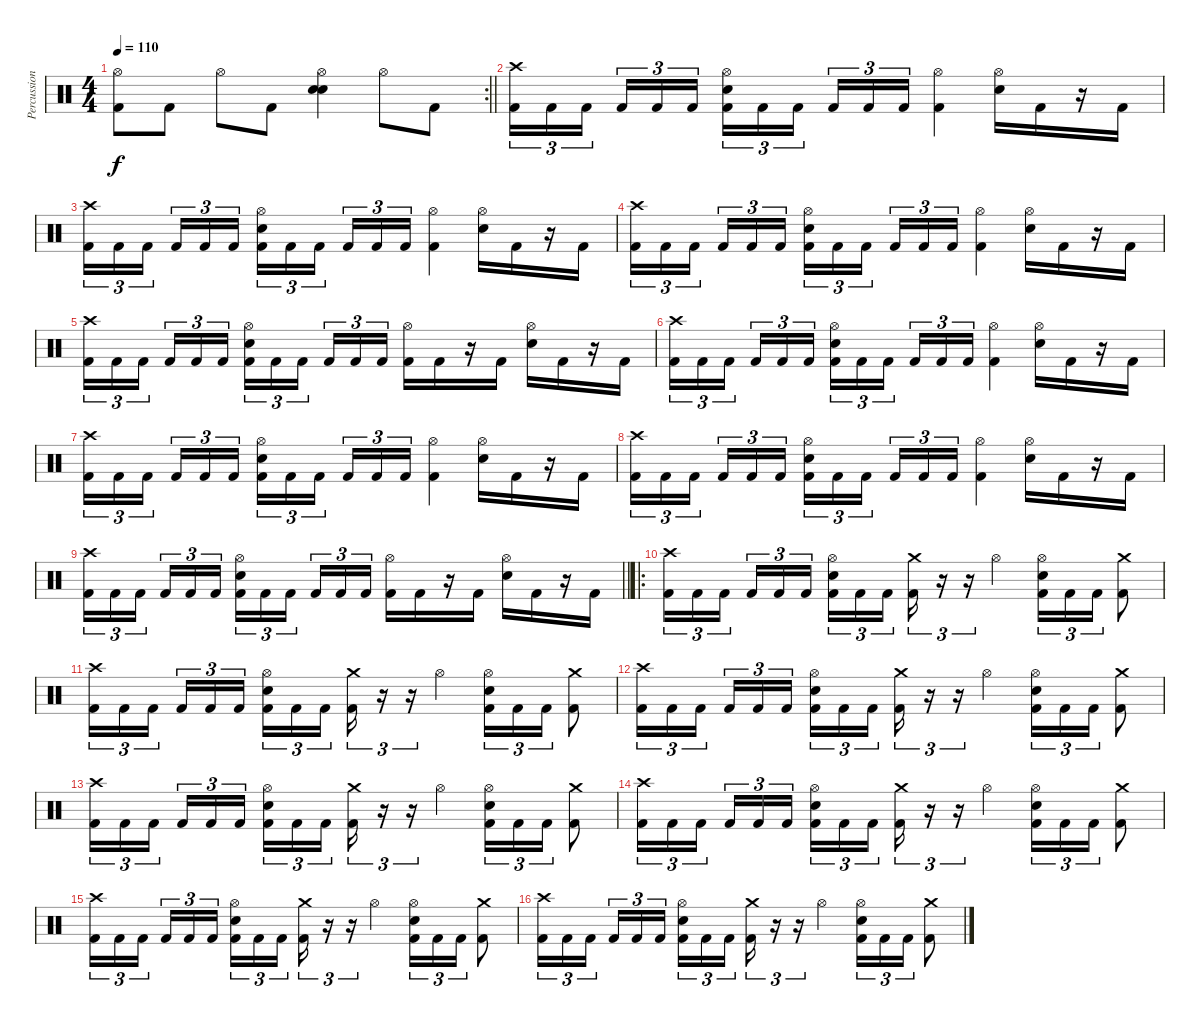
\track ("Percussions" "Percussion") {instrument percussion}
\staff {score}
\articulation defaults
\rc 2
\ts (4 4)
\tempo 110
\clef neutral
\barLineRight lightlight
\ks c
("Hi-Hat (open)" "Kick (hit) 2").8{dy f} "Kick (hit) 2".8 "Hi-Hat (open)".8 "Kick (hit) 2".8 ("Hand Clap (hit)" "Hi-Hat (open)" "Electric Snare (hit)").4 "Hi-Hat (open)".8 "Kick (hit) 2".8 |
\section ("" "")
("Crash high (hit)" "Kick (hit) 2").16{tu (3 2)} "Kick (hit) 2".16{tu (3 2)} "Kick (hit) 2".16{tu (3 2) beam splitsecondary} "Kick (hit) 2".16{tu (3 2)} "Kick (hit) 2".16{tu (3 2)} "Kick (hit) 2".16{tu (3 2)} ("Hi-Hat (open)" "Electric Snare (hit)" "Kick (hit) 2").16{tu (3 2)} "Kick (hit) 2".16{tu (3 2)} "Kick (hit) 2".16{tu (3 2) beam splitsecondary} "Kick (hit) 2".16{tu (3 2)} "Kick (hit) 2".16{tu (3 2)} "Kick (hit) 2".16{tu (3 2)} ("Hi-Hat (open)" "Kick (hit) 2").4 ("Hi-Hat (open)" "Electric Snare (hit)").16 "Kick (hit) 2".16 r.16 "Kick (hit) 2".16 |
("Crash high (hit)" "Kick (hit) 2").16{tu (3 2)} "Kick (hit) 2".16{tu (3 2)} "Kick (hit) 2".16{tu (3 2) beam splitsecondary} "Kick (hit) 2".16{tu (3 2)} "Kick (hit) 2".16{tu (3 2)} "Kick (hit) 2".16{tu (3 2)} ("Hi-Hat (open)" "Electric Snare (hit)" "Kick (hit) 2").16{tu (3 2)} "Kick (hit) 2".16{tu (3 2)} "Kick (hit) 2".16{tu (3 2) beam splitsecondary} "Kick (hit) 2".16{tu (3 2)} "Kick (hit) 2".16{tu (3 2)} "Kick (hit) 2".16{tu (3 2)} ("Hi-Hat (open)" "Kick (hit) 2").4 ("Hi-Hat (open)" "Electric Snare (hit)").16 "Kick (hit) 2".16 r.16 "Kick (hit) 2".16 |
("Crash high (hit)" "Kick (hit) 2").16{tu (3 2)} "Kick (hit) 2".16{tu (3 2)} "Kick (hit) 2".16{tu (3 2) beam splitsecondary} "Kick (hit) 2".16{tu (3 2)} "Kick (hit) 2".16{tu (3 2)} "Kick (hit) 2".16{tu (3 2)} ("Hi-Hat (open)" "Electric Snare (hit)" "Kick (hit) 2").16{tu (3 2)} "Kick (hit) 2".16{tu (3 2)} "Kick (hit) 2".16{tu (3 2) beam splitsecondary} "Kick (hit) 2".16{tu (3 2)} "Kick (hit) 2".16{tu (3 2)} "Kick (hit) 2".16{tu (3 2)} ("Hi-Hat (open)" "Kick (hit) 2").4 ("Hi-Hat (open)" "Electric Snare (hit)").16 "Kick (hit) 2".16 r.16 "Kick (hit) 2".16 |
("Crash high (hit)" "Kick (hit) 2").16{tu (3 2)} "Kick (hit) 2".16{tu (3 2)} "Kick (hit) 2".16{tu (3 2) beam splitsecondary} "Kick (hit) 2".16{tu (3 2)} "Kick (hit) 2".16{tu (3 2)} "Kick (hit) 2".16{tu (3 2)} ("Hi-Hat (open)" "Electric Snare (hit)" "Kick (hit) 2").16{tu (3 2)} "Kick (hit) 2".16{tu (3 2)} "Kick (hit) 2".16{tu (3 2) beam splitsecondary} "Kick (hit) 2".16{tu (3 2)} "Kick (hit) 2".16{tu (3 2)} "Kick (hit) 2".16{tu (3 2)} ("Hi-Hat (open)" "Kick (hit) 2").16 "Kick (hit) 2".16 r.16 "Kick (hit) 2".16 ("Hi-Hat (open)" "Electric Snare (hit)").16 "Kick (hit) 2".16 r.16 "Kick (hit) 2".16 |
("Crash high (hit)" "Kick (hit) 2").16{tu (3 2)} "Kick (hit) 2".16{tu (3 2)} "Kick (hit) 2".16{tu (3 2) beam splitsecondary} "Kick (hit) 2".16{tu (3 2)} "Kick (hit) 2".16{tu (3 2)} "Kick (hit) 2".16{tu (3 2)} ("Hi-Hat (open)" "Electric Snare (hit)" "Kick (hit) 2").16{tu (3 2)} "Kick (hit) 2".16{tu (3 2)} "Kick (hit) 2".16{tu (3 2) beam splitsecondary} "Kick (hit) 2".16{tu (3 2)} "Kick (hit) 2".16{tu (3 2)} "Kick (hit) 2".16{tu (3 2)} ("Hi-Hat (open)" "Kick (hit) 2").4 ("Hi-Hat (open)" "Electric Snare (hit)").16 "Kick (hit) 2".16 r.16 "Kick (hit) 2".16 |
("Crash high (hit)" "Kick (hit) 2").16{tu (3 2)} "Kick (hit) 2".16{tu (3 2)} "Kick (hit) 2".16{tu (3 2) beam splitsecondary} "Kick (hit) 2".16{tu (3 2)} "Kick (hit) 2".16{tu (3 2)} "Kick (hit) 2".16{tu (3 2)} ("Hi-Hat (open)" "Electric Snare (hit)" "Kick (hit) 2").16{tu (3 2)} "Kick (hit) 2".16{tu (3 2)} "Kick (hit) 2".16{tu (3 2) beam splitsecondary} "Kick (hit) 2".16{tu (3 2)} "Kick (hit) 2".16{tu (3 2)} "Kick (hit) 2".16{tu (3 2)} ("Hi-Hat (open)" "Kick (hit) 2").4 ("Hi-Hat (open)" "Electric Snare (hit)").16 "Kick (hit) 2".16 r.16 "Kick (hit) 2".16 |
("Crash high (hit)" "Kick (hit) 2").16{tu (3 2)} "Kick (hit) 2".16{tu (3 2)} "Kick (hit) 2".16{tu (3 2) beam splitsecondary} "Kick (hit) 2".16{tu (3 2)} "Kick (hit) 2".16{tu (3 2)} "Kick (hit) 2".16{tu (3 2)} ("Hi-Hat (open)" "Electric Snare (hit)" "Kick (hit) 2").16{tu (3 2)} "Kick (hit) 2".16{tu (3 2)} "Kick (hit) 2".16{tu (3 2) beam splitsecondary} "Kick (hit) 2".16{tu (3 2)} "Kick (hit) 2".16{tu (3 2)} "Kick (hit) 2".16{tu (3 2)} ("Hi-Hat (open)" "Kick (hit) 2").4 ("Hi-Hat (open)" "Electric Snare (hit)").16 "Kick (hit) 2".16 r.16 "Kick (hit) 2".16 |
\barLineRight lightlight
("Crash high (hit)" "Kick (hit) 2").16{tu (3 2)} "Kick (hit) 2".16{tu (3 2)} "Kick (hit) 2".16{tu (3 2) beam splitsecondary} "Kick (hit) 2".16{tu (3 2)} "Kick (hit) 2".16{tu (3 2)} "Kick (hit) 2".16{tu (3 2)} ("Hi-Hat (open)" "Electric Snare (hit)" "Kick (hit) 2").16{tu (3 2)} "Kick (hit) 2".16{tu (3 2)} "Kick (hit) 2".16{tu (3 2) beam splitsecondary} "Kick (hit) 2".16{tu (3 2)} "Kick (hit) 2".16{tu (3 2)} "Kick (hit) 2".16{tu (3 2)} ("Hi-Hat (open)" "Kick (hit) 2").16 "Kick (hit) 2".16 r.16 "Kick (hit) 2".16 ("Hi-Hat (open)" "Electric Snare (hit)").16 "Kick (hit) 2".16 r.16 "Kick (hit) 2".16 |
\ro
\section ("" "")
("Crash high (hit)" "Kick (hit) 2").16{tu (3 2)} "Kick (hit) 2".16{tu (3 2)} "Kick (hit) 2".16{tu (3 2) beam splitsecondary} "Kick (hit) 2".16{tu (3 2)} "Kick (hit) 2".16{tu (3 2)} "Kick (hit) 2".16{tu (3 2)} ("Hi-Hat (open)" "Electric Snare (hit)" "Kick (hit) 2").16{tu (3 2)} "Kick (hit) 2".16{tu (3 2)} "Kick (hit) 2".16{tu (3 2) beam splitsecondary} ("Crash medium (hit)" "Kick (hit) 2").16{tu (3 2)} r.16{tu (3 2)} r.16{tu (3 2)} "Hi-Hat (open)".4 ("Hi-Hat (open)" "Electric Snare (hit)" "Kick (hit) 2").16{tu (3 2)} "Kick (hit) 2".16{tu (3 2)} "Kick (hit) 2".16{tu (3 2)} ("Crash medium (hit)" "Kick (hit) 2").8 |
("Crash high (hit)" "Kick (hit) 2").16{tu (3 2)} "Kick (hit) 2".16{tu (3 2)} "Kick (hit) 2".16{tu (3 2) beam splitsecondary} "Kick (hit) 2".16{tu (3 2)} "Kick (hit) 2".16{tu (3 2)} "Kick (hit) 2".16{tu (3 2)} ("Hi-Hat (open)" "Electric Snare (hit)" "Kick (hit) 2").16{tu (3 2)} "Kick (hit) 2".16{tu (3 2)} "Kick (hit) 2".16{tu (3 2) beam splitsecondary} ("Crash medium (hit)" "Kick (hit) 2").16{tu (3 2)} r.16{tu (3 2)} r.16{tu (3 2)} "Hi-Hat (open)".4 ("Hi-Hat (open)" "Electric Snare (hit)" "Kick (hit) 2").16{tu (3 2)} "Kick (hit) 2".16{tu (3 2)} "Kick (hit) 2".16{tu (3 2)} ("Crash medium (hit)" "Kick (hit) 2").8 |
("Crash high (hit)" "Kick (hit) 2").16{tu (3 2)} "Kick (hit) 2".16{tu (3 2)} "Kick (hit) 2".16{tu (3 2) beam splitsecondary} "Kick (hit) 2".16{tu (3 2)} "Kick (hit) 2".16{tu (3 2)} "Kick (hit) 2".16{tu (3 2)} ("Hi-Hat (open)" "Electric Snare (hit)" "Kick (hit) 2").16{tu (3 2)} "Kick (hit) 2".16{tu (3 2)} "Kick (hit) 2".16{tu (3 2) beam splitsecondary} ("Crash medium (hit)" "Kick (hit) 2").16{tu (3 2)} r.16{tu (3 2)} r.16{tu (3 2)} "Hi-Hat (open)".4 ("Hi-Hat (open)" "Electric Snare (hit)" "Kick (hit) 2").16{tu (3 2)} "Kick (hit) 2".16{tu (3 2)} "Kick (hit) 2".16{tu (3 2)} ("Crash medium (hit)" "Kick (hit) 2").8 |
("Crash high (hit)" "Kick (hit) 2").16{tu (3 2)} "Kick (hit) 2".16{tu (3 2)} "Kick (hit) 2".16{tu (3 2) beam splitsecondary} "Kick (hit) 2".16{tu (3 2)} "Kick (hit) 2".16{tu (3 2)} "Kick (hit) 2".16{tu (3 2)} ("Hi-Hat (open)" "Electric Snare (hit)" "Kick (hit) 2").16{tu (3 2)} "Kick (hit) 2".16{tu (3 2)} "Kick (hit) 2".16{tu (3 2) beam splitsecondary} ("Crash medium (hit)" "Kick (hit) 2").16{tu (3 2)} r.16{tu (3 2)} r.16{tu (3 2)} "Hi-Hat (open)".4 ("Hi-Hat (open)" "Electric Snare (hit)" "Kick (hit) 2").16{tu (3 2)} "Kick (hit) 2".16{tu (3 2)} "Kick (hit) 2".16{tu (3 2)} ("Crash medium (hit)" "Kick (hit) 2").8 |
("Crash high (hit)" "Kick (hit) 2").16{tu (3 2)} "Kick (hit) 2".16{tu (3 2)} "Kick (hit) 2".16{tu (3 2) beam splitsecondary} "Kick (hit) 2".16{tu (3 2)} "Kick (hit) 2".16{tu (3 2)} "Kick (hit) 2".16{tu (3 2)} ("Hi-Hat (open)" "Electric Snare (hit)" "Kick (hit) 2").16{tu (3 2)} "Kick (hit) 2".16{tu (3 2)} "Kick (hit) 2".16{tu (3 2) beam splitsecondary} ("Crash medium (hit)" "Kick (hit) 2").16{tu (3 2)} r.16{tu (3 2)} r.16{tu (3 2)} "Hi-Hat (open)".4 ("Hi-Hat (open)" "Electric Snare (hit)" "Kick (hit) 2").16{tu (3 2)} "Kick (hit) 2".16{tu (3 2)} "Kick (hit) 2".16{tu (3 2)} ("Crash medium (hit)" "Kick (hit) 2").8 |
("Crash high (hit)" "Kick (hit) 2").16{tu (3 2)} "Kick (hit) 2".16{tu (3 2)} "Kick (hit) 2".16{tu (3 2) beam splitsecondary} "Kick (hit) 2".16{tu (3 2)} "Kick (hit) 2".16{tu (3 2)} "Kick (hit) 2".16{tu (3 2)} ("Hi-Hat (open)" "Electric Snare (hit)" "Kick (hit) 2").16{tu (3 2)} "Kick (hit) 2".16{tu (3 2)} "Kick (hit) 2".16{tu (3 2) beam splitsecondary} ("Crash medium (hit)" "Kick (hit) 2").16{tu (3 2)} r.16{tu (3 2)} r.16{tu (3 2)} "Hi-Hat (open)".4 ("Hi-Hat (open)" "Electric Snare (hit)" "Kick (hit) 2").16{tu (3 2)} "Kick (hit) 2".16{tu (3 2)} "Kick (hit) 2".16{tu (3 2)} ("Crash medium (hit)" "Kick (hit) 2").8 |
("Crash high (hit)" "Kick (hit) 2").16{tu (3 2)} "Kick (hit) 2".16{tu (3 2)} "Kick (hit) 2".16{tu (3 2) beam splitsecondary} "Kick (hit) 2".16{tu (3 2)} "Kick (hit) 2".16{tu (3 2)} "Kick (hit) 2".16{tu (3 2)} ("Hi-Hat (open)" "Electric Snare (hit)" "Kick (hit) 2").16{tu (3 2)} "Kick (hit) 2".16{tu (3 2)} "Kick (hit) 2".16{tu (3 2) beam splitsecondary} ("Crash medium (hit)" "Kick (hit) 2").16{tu (3 2)} r.16{tu (3 2)} r.16{tu (3 2)} "Hi-Hat (open)".4 ("Hi-Hat (open)" "Electric Snare (hit)" "Kick (hit) 2").16{tu (3 2)} "Kick (hit) 2".16{tu (3 2)} "Kick (hit) 2".16{tu (3 2)} ("Crash medium (hit)" "Kick (hit) 2").8
